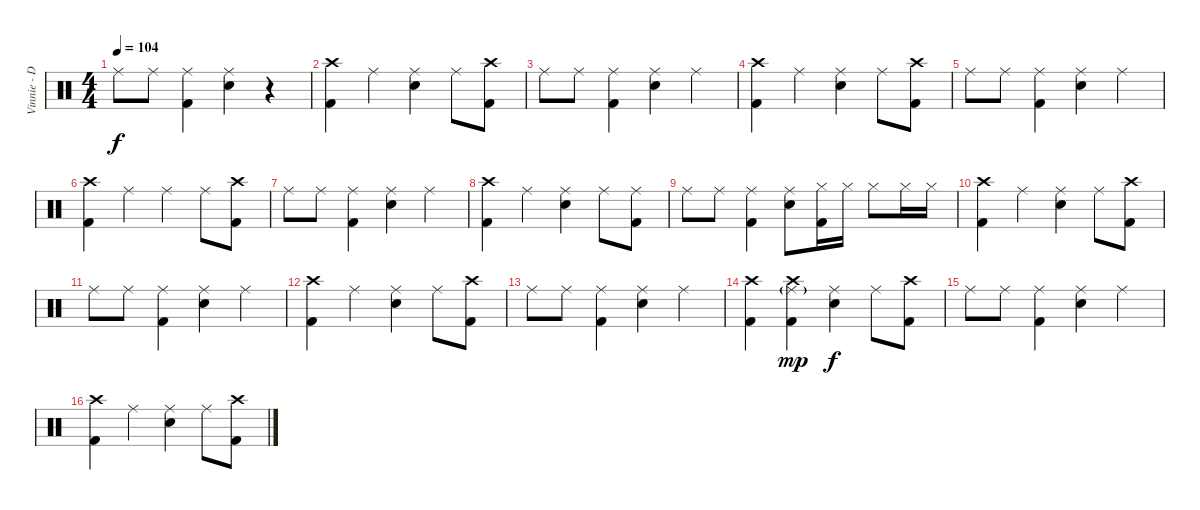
\track ("Vinnie - Drums" "Vinnie - D") {instrument percussion}
\staff {score}
\articulation defaults
\ts (4 4)
\tempo 104
\clef neutral
\ks c "Ride (middle)".8{dy f} "Ride (middle)".8
("Ride (middle)" "Kick (hit) 2").4 ("Ride (middle)" "Electric Snare (hit)").4 r.4 |
("Crash high (hit)" "Kick (hit) 2").4{volume 12} "Ride (middle)".4 ("Ride (middle)" "Electric Snare (hit)").4 "Ride (middle)".8 ("Crash high (hit)" "Kick (hit) 2").8 |
"Ride (middle)".8 "Ride (middle)".8 ("Ride (middle)" "Kick (hit) 2").4 ("Ride (middle)" "Electric Snare (hit)").4 "Ride (middle)".4 |
("Crash high (hit)" "Kick (hit) 2").4{volume 8} "Ride (middle)".4 ("Ride (middle)" "Electric Snare (hit)").4 "Ride (middle)".8 ("Crash high (hit)" "Kick (hit) 2").8 |
"Ride (middle)".8 "Ride (middle)".8 ("Ride (middle)" "Kick (hit) 2").4 ("Ride (middle)" "Electric Snare (hit)").4 "Ride (middle)".4 |
("Crash high (hit)" "Kick (hit) 2").4{volume 4} "Ride (middle)".4 "Ride (middle)".4 "Ride (middle)".8 ("Crash high (hit)" "Kick (hit) 2").8 |
"Ride (middle)".8 "Ride (middle)".8 ("Ride (middle)" "Kick (hit) 2").4 ("Ride (middle)" "Electric Snare (hit)").4 "Ride (middle)".4 |
("Crash high (hit)" "Kick (hit) 2").4 "Ride (middle)".4 ("Ride (middle)" "Electric Snare (hit)").4 "Ride (middle)".8 ("Ride (middle)" "Kick (hit) 2").8 |
"Ride (middle)".8 "Ride (middle)".8 ("Ride (middle)" "Kick (hit) 2").4 ("Ride (middle)" "Electric Snare (hit)").8 ("Hi-Hat (closed)" "Kick (hit) 2").16 "Hi-Hat (closed)".16 "Hi-Hat (closed)".8 "Hi-Hat (closed)".16 "Hi-Hat (closed)".16 |
("Crash high (hit)" "Kick (hit) 2").4 "Ride (middle)".4 ("Ride (middle)" "Electric Snare (hit)").4 "Ride (middle)".8 ("Crash high (hit)" "Kick (hit) 2").8 |
"Ride (middle)".8 "Ride (middle)".8 ("Ride (middle)" "Kick (hit) 2").4 ("Ride (middle)" "Electric Snare (hit)").4 "Ride (middle)".4 |
("Crash high (hit)" "Kick (hit) 2").4 "Ride (middle)".4 ("Ride (middle)" "Electric Snare (hit)").4 "Ride (middle)".8 ("Crash high (hit)" "Kick (hit) 2").8 |
"Ride (middle)".8 "Ride (middle)".8 ("Ride (middle)" "Kick (hit) 2").4 ("Ride (middle)" "Electric Snare (hit)").4 "Ride (middle)".4 |
("Crash high (hit)" "Kick (hit) 2").4 ("Ride (middle)"{g} "Crash high (hit)" "Kick (hit) 2").4{dy mp} ("Ride (middle)" "Electric Snare (hit)").4{dy f} "Ride (middle)".8 ("Crash high (hit)" "Kick (hit) 2").8 |
"Ride (middle)".8 "Ride (middle)".8 ("Ride (middle)" "Kick (hit) 2").4 ("Ride (middle)" "Electric Snare (hit)").4 "Ride (middle)".4 |
("Crash high (hit)" "Kick (hit) 2").4{volume 3} "Ride (middle)".4 ("Ride (middle)" "Electric Snare (hit)").4 "Ride (middle)".8 ("Crash high (hit)" "Kick (hit) 2").8
